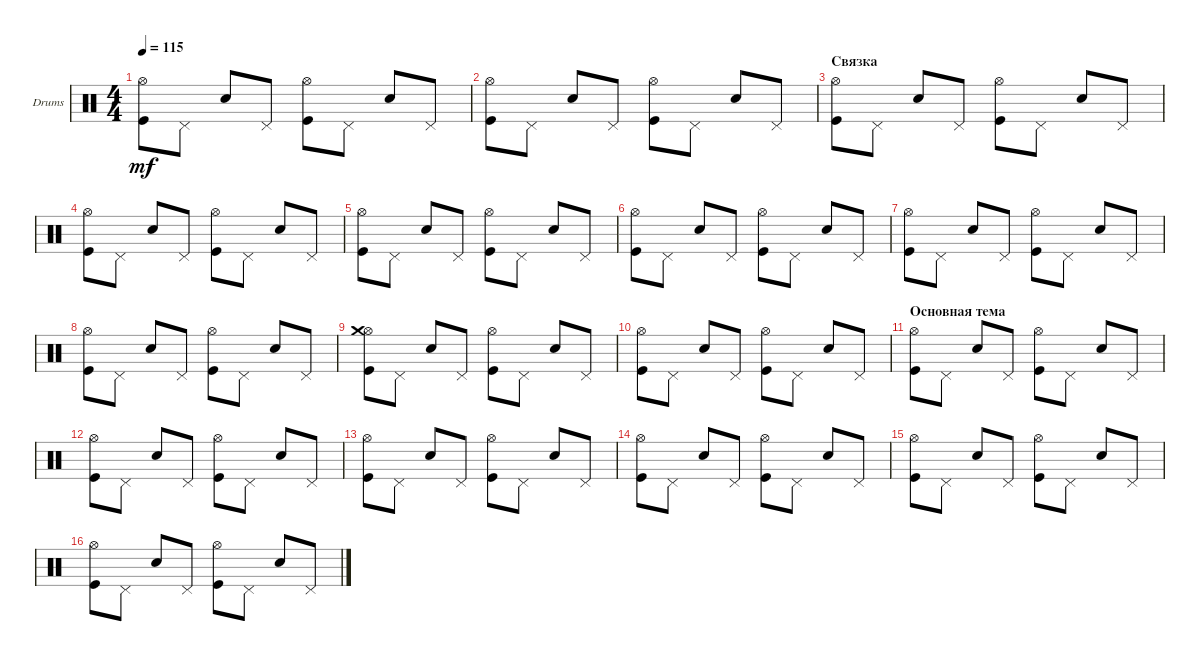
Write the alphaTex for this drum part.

\defaultSystemsLayout 4
\bracketExtendMode groupsimilarinstruments
\firstSystemTrackNameOrientation horizontal
\otherSystemsTrackNameOrientation horizontal
\track ("Е.Кулаков Ударные" "Drums") {instrument percussion}
\staff {score}
\articulation defaults
\ts (4 4)
\tempo 115
\clef neutral
\scale
0.333333
\ks c
("Kick (hit)" "Hi-Hat (open)").8{dy mf} "Pedal Hi-Hat (hit)".8 "Snare (hit) 2".8 "Pedal Hi-Hat (hit)".8 ("Kick (hit)" "Hi-Hat (open)").8 "Pedal Hi-Hat (hit)".8 "Snare (hit) 2".8 "Pedal Hi-Hat (hit)".8 |
\scale
0.333333 ("Kick (hit)" "Hi-Hat (open)").8 "Pedal Hi-Hat (hit)".8 "Snare (hit) 2".8 "Pedal Hi-Hat (hit)".8 ("Kick (hit)" "Hi-Hat (open)").8 "Pedal Hi-Hat (hit)".8 "Snare (hit) 2".8 "Pedal Hi-Hat (hit)".8 |
\section ("" "Связка")
\scale
0.333333 ("Kick (hit)" "Hi-Hat (open)").8 "Pedal Hi-Hat (hit)".8 "Snare (hit) 2".8 "Pedal Hi-Hat (hit)".8 ("Kick (hit)" "Hi-Hat (open)").8 "Pedal Hi-Hat (hit)".8 "Snare (hit) 2".8 "Pedal Hi-Hat (hit)".8 |
\scale
0.333333 ("Kick (hit)" "Hi-Hat (open)").8 "Pedal Hi-Hat (hit)".8 "Snare (hit) 2".8 "Pedal Hi-Hat (hit)".8 ("Kick (hit)" "Hi-Hat (open)").8 "Pedal Hi-Hat (hit)".8 "Snare (hit) 2".8 "Pedal Hi-Hat (hit)".8 |
\scale
0.333333 ("Kick (hit)" "Hi-Hat (open)").8 "Pedal Hi-Hat (hit)".8 "Snare (hit) 2".8 "Pedal Hi-Hat (hit)".8 ("Kick (hit)" "Hi-Hat (open)").8 "Pedal Hi-Hat (hit)".8 "Snare (hit) 2".8 "Pedal Hi-Hat (hit)".8 |
\scale
0.333333 ("Kick (hit)" "Hi-Hat (open)").8 "Pedal Hi-Hat (hit)".8 "Snare (hit) 2".8 "Pedal Hi-Hat (hit)".8 ("Kick (hit)" "Hi-Hat (open)").8 "Pedal Hi-Hat (hit)".8 "Snare (hit) 2".8 "Pedal Hi-Hat (hit)".8 |
\scale
0.333333 ("Kick (hit)" "Hi-Hat (open)").8 "Pedal Hi-Hat (hit)".8 "Snare (hit) 2".8 "Pedal Hi-Hat (hit)".8 ("Kick (hit)" "Hi-Hat (open)").8 "Pedal Hi-Hat (hit)".8 "Snare (hit) 2".8 "Pedal Hi-Hat (hit)".8 |
\scale
0.333333 ("Kick (hit)" "Hi-Hat (open)").8 "Pedal Hi-Hat (hit)".8 "Snare (hit) 2".8 "Pedal Hi-Hat (hit)".8 ("Kick (hit)" "Hi-Hat (open)").8 "Pedal Hi-Hat (hit)".8 "Snare (hit) 2".8 "Pedal Hi-Hat (hit)".8 |
\scale
0.333333 ("Kick (hit)" "Hi-Hat (open)" "Crash medium (hit)").8 "Pedal Hi-Hat (hit)".8 "Snare (hit) 2".8 "Pedal Hi-Hat (hit)".8 ("Kick (hit)" "Hi-Hat (open)").8 "Pedal Hi-Hat (hit)".8 "Snare (hit) 2".8 "Pedal Hi-Hat (hit)".8 |
\scale
0.333333 ("Kick (hit)" "Hi-Hat (open)").8 "Pedal Hi-Hat (hit)".8 "Snare (hit) 2".8 "Pedal Hi-Hat (hit)".8 ("Kick (hit)" "Hi-Hat (open)").8 "Pedal Hi-Hat (hit)".8 "Snare (hit) 2".8 "Pedal Hi-Hat (hit)".8 |
\section ("" "Основная тема")
\scale
0.333333 ("Kick (hit)" "Hi-Hat (open)").8 "Pedal Hi-Hat (hit)".8 "Snare (hit) 2".8 "Pedal Hi-Hat (hit)".8 ("Kick (hit)" "Hi-Hat (open)").8 "Pedal Hi-Hat (hit)".8 "Snare (hit) 2".8 "Pedal Hi-Hat (hit)".8 |
\scale
0.333333 ("Kick (hit)" "Hi-Hat (open)").8 "Pedal Hi-Hat (hit)".8 "Snare (hit) 2".8 "Pedal Hi-Hat (hit)".8 ("Kick (hit)" "Hi-Hat (open)").8 "Pedal Hi-Hat (hit)".8 "Snare (hit) 2".8 "Pedal Hi-Hat (hit)".8 |
\scale
0.333333 ("Kick (hit)" "Hi-Hat (open)").8 "Pedal Hi-Hat (hit)".8 "Snare (hit) 2".8 "Pedal Hi-Hat (hit)".8 ("Kick (hit)" "Hi-Hat (open)").8 "Pedal Hi-Hat (hit)".8 "Snare (hit) 2".8 "Pedal Hi-Hat (hit)".8 |
\scale
0.333333 ("Kick (hit)" "Hi-Hat (open)").8 "Pedal Hi-Hat (hit)".8 "Snare (hit) 2".8 "Pedal Hi-Hat (hit)".8 ("Kick (hit)" "Hi-Hat (open)").8 "Pedal Hi-Hat (hit)".8 "Snare (hit) 2".8 "Pedal Hi-Hat (hit)".8 |
\scale
0.333333 ("Kick (hit)" "Hi-Hat (open)").8 "Pedal Hi-Hat (hit)".8 "Snare (hit) 2".8 "Pedal Hi-Hat (hit)".8 ("Kick (hit)" "Hi-Hat (open)").8 "Pedal Hi-Hat (hit)".8 "Snare (hit) 2".8 "Pedal Hi-Hat (hit)".8 |
("Kick (hit)" "Hi-Hat (open)").8 "Pedal Hi-Hat (hit)".8 "Snare (hit) 2".8 "Pedal Hi-Hat (hit)".8 ("Kick (hit)" "Hi-Hat (open)").8 "Pedal Hi-Hat (hit)".8 "Snare (hit) 2".8 "Pedal Hi-Hat (hit)".8
